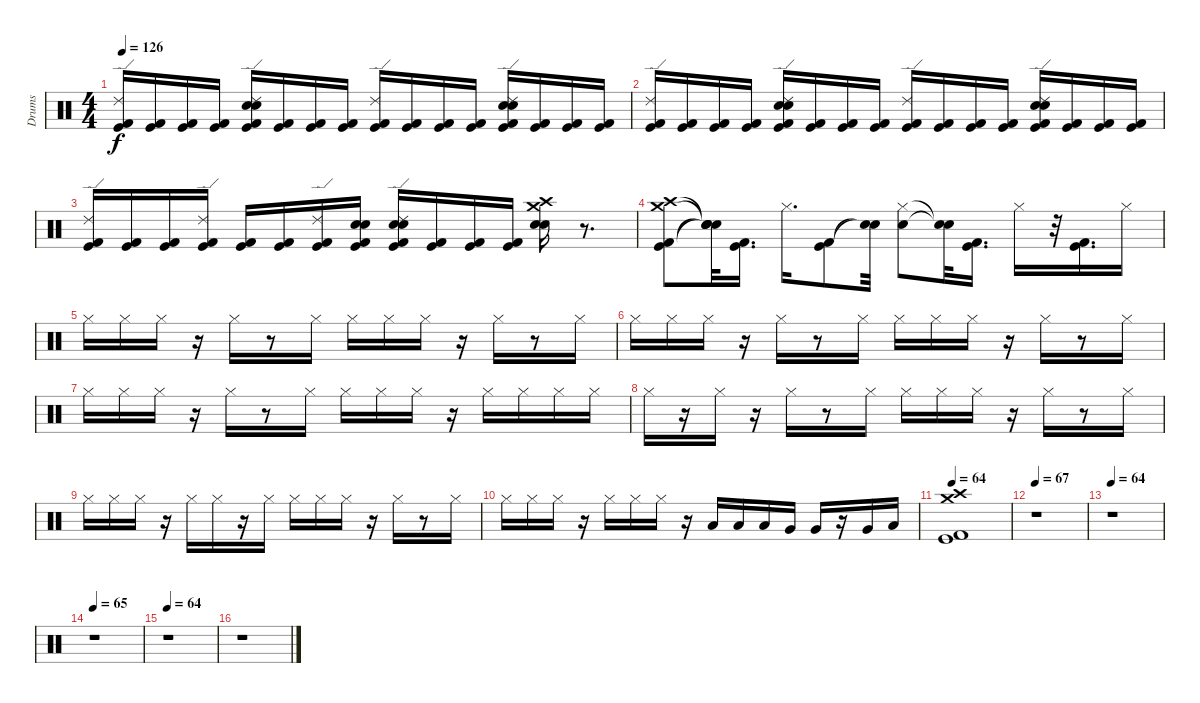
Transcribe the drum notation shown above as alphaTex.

\track ("Drums" "Drums") {instrument percussion}
\staff {score}
\articulation defaults
\ts (4 4)
\tempo 126
\clef neutral
\ks c
("Kick (hit) 2" "Ride (edge) 2" "Kick (hit)").16{dy f} ("Kick (hit) 2" "Kick (hit)").16 ("Kick (hit) 2" "Kick (hit)").16 ("Kick (hit) 2" "Kick (hit)").16 ("Snare (hit) 2" "Kick (hit) 2" "Ride (edge) 2" "Electric Snare (hit)" "Kick (hit)").16 ("Kick (hit) 2" "Kick (hit)").16 ("Kick (hit) 2" "Kick (hit)").16 ("Kick (hit) 2" "Kick (hit)").16 ("Kick (hit) 2" "Ride (edge) 2" "Kick (hit)").16 ("Kick (hit) 2" "Kick (hit)").16 ("Kick (hit) 2" "Kick (hit)").16 ("Kick (hit) 2" "Kick (hit)").16 ("Snare (hit) 2" "Kick (hit) 2" "Ride (edge) 2" "Electric Snare (hit)" "Kick (hit)").16 ("Kick (hit) 2" "Kick (hit)").16 ("Kick (hit) 2" "Kick (hit)").16 ("Kick (hit) 2" "Kick (hit)").16 |
("Kick (hit) 2" "Ride (edge) 2" "Kick (hit)").16 ("Kick (hit) 2" "Kick (hit)").16 ("Kick (hit) 2" "Kick (hit)").16 ("Kick (hit) 2" "Kick (hit)").16 ("Snare (hit) 2" "Kick (hit) 2" "Ride (edge) 2" "Electric Snare (hit)" "Kick (hit)").16 ("Kick (hit) 2" "Kick (hit)").16 ("Kick (hit) 2" "Kick (hit)").16 ("Kick (hit) 2" "Kick (hit)").16 ("Kick (hit) 2" "Ride (edge) 2" "Kick (hit)").16 ("Kick (hit) 2" "Kick (hit)").16 ("Kick (hit) 2" "Kick (hit)").16 ("Kick (hit) 2" "Kick (hit)").16 ("Snare (hit) 2" "Kick (hit) 2" "Ride (edge) 2" "Electric Snare (hit)" "Kick (hit)").16 ("Kick (hit) 2" "Kick (hit)").16 ("Kick (hit) 2" "Kick (hit)").16 ("Kick (hit) 2" "Kick (hit)").16 |
("Ride (edge) 2" "Kick (hit) 2" "Kick (hit)").16 ("Kick (hit) 2" "Kick (hit)").16 ("Kick (hit) 2" "Kick (hit)").16 ("Ride (edge) 2" "Kick (hit) 2" "Kick (hit)").16 ("Kick (hit) 2" "Kick (hit)").16 ("Kick (hit) 2" "Kick (hit)").16 ("Ride (edge) 2" "Kick (hit) 2" "Kick (hit)").16 ("Electric Snare (hit)" "Snare (hit) 2" "Kick (hit) 2" "Kick (hit)").16 ("Ride (edge) 2" "Snare (hit) 2" "Electric Snare (hit)" "Kick (hit) 2" "Kick (hit)").16 ("Kick (hit) 2" "Kick (hit)").16 ("Kick (hit) 2" "Kick (hit)").16 ("Kick (hit) 2" "Kick (hit)").16 ("Crash high (hit)" "Crash medium (hit)" "Electric Snare (hit)" "Snare (hit) 2").16 r.8{d} |
("Crash high (hit)" "Crash medium (hit)" "Kick (hit) 2" "Kick (hit)").8 ("Snare (hit)"{t} "Snare (hit)"{t} "Snare (hit)"{t} "Snare (hit)"{t}).32 ("Kick (hit) 2" "Kick (hit)").16{d} "Hi-Hat (closed)".16{d} ("Kick (hit) 2" "Kick (hit)").8 ("Snare (hit)"{t} "Snare (hit)"{t}).32 ("Snare (hit)" "Hi-Hat (closed)").8 ("Snare (hit)"{t} "Snare (hit)"{t}).32 ("Kick (hit) 2" "Kick (hit)").16{d} "Hi-Hat (closed)".16 r.32 ("Kick (hit) 2" "Kick (hit)").16{d} "Hi-Hat (closed)".16 |
"Hi-Hat (closed)".16 "Hi-Hat (closed)".16 "Hi-Hat (closed)".16 r.16 "Hi-Hat (closed)".16 r.8 "Hi-Hat (closed)".16 "Hi-Hat (closed)".16 "Hi-Hat (closed)".16 "Hi-Hat (closed)".16 r.16 "Hi-Hat (closed)".16 r.8 "Hi-Hat (closed)".16 |
"Hi-Hat (closed)".16 "Hi-Hat (closed)".16 "Hi-Hat (closed)".16 r.16 "Hi-Hat (closed)".16 r.8 "Hi-Hat (closed)".16 "Hi-Hat (closed)".16 "Hi-Hat (closed)".16 "Hi-Hat (closed)".16 r.16 "Hi-Hat (closed)".16 r.8 "Hi-Hat (closed)".16 |
"Hi-Hat (closed)".16 "Hi-Hat (closed)".16 "Hi-Hat (closed)".16 r.16 "Hi-Hat (closed)".16 r.8 "Hi-Hat (closed)".16 "Hi-Hat (closed)".16 "Hi-Hat (closed)".16 "Hi-Hat (closed)".16 r.16 "Hi-Hat (closed)".16 "Hi-Hat (closed)".16 "Hi-Hat (closed)".16 "Hi-Hat (closed)".16 |
"Hi-Hat (closed)".16 r.16 "Hi-Hat (closed)".16 r.16 "Hi-Hat (closed)".16 r.8 "Hi-Hat (closed)".16 "Hi-Hat (closed)".16 "Hi-Hat (closed)".16 "Hi-Hat (closed)".16 r.16 "Hi-Hat (closed)".16 r.8 "Hi-Hat (closed)".16 |
"Hi-Hat (closed)".16 "Hi-Hat (closed)".16 "Hi-Hat (closed)".16 r.16 "Hi-Hat (closed)".16 "Hi-Hat (closed)".16 r.16 "Hi-Hat (closed)".16 "Hi-Hat (closed)".16 "Hi-Hat (closed)".16 "Hi-Hat (closed)".16 r.16 "Hi-Hat (closed)".16 r.8 "Hi-Hat (closed)".16 |
"Hi-Hat (closed)".16 "Hi-Hat (closed)".16 "Hi-Hat (closed)".16 r.16 "Hi-Hat (closed)".16 "Hi-Hat (closed)".16 "Hi-Hat (closed)".16 r.16 "Low Tom (hit)".16 "Low Tom (hit)".16 "Low Tom (hit)".16 "Very Low Tom (hit)".16 "Very Low Tom (hit)".16 r.16 "Very Low Tom (hit)".16 "Low Floor Tom (hit)".16 |
\tempo 69
\tempo 64
("Crash high (hit)" "Crash medium (hit)" "Kick (hit)" "Kick (hit) 2").1 |
\tempo 67
r.1 |
\tempo 61
\tempo 64
r.1 |
\tempo 65
r.1 |
\tempo 62
\tempo 64
r.1 |
r.1
